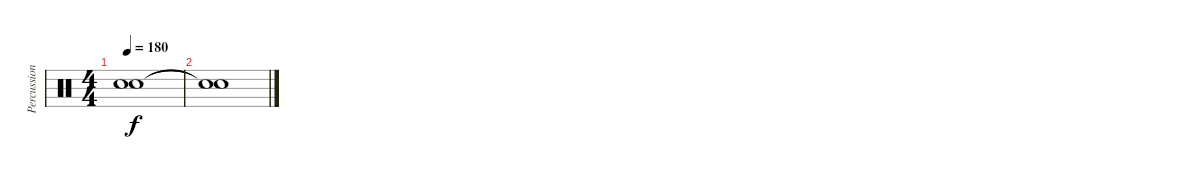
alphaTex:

\track ("Percussion" "Percussion") {instrument percussion}
\staff {score}
\articulation defaults
\ts (4 4)
\tempo 180
\clef neutral
\ks c
("Snare (hit)"{t} "Snare (hit)"{t}).1{dy f} |
("Snare (hit)"{t} "Snare (hit)"{t}).1
